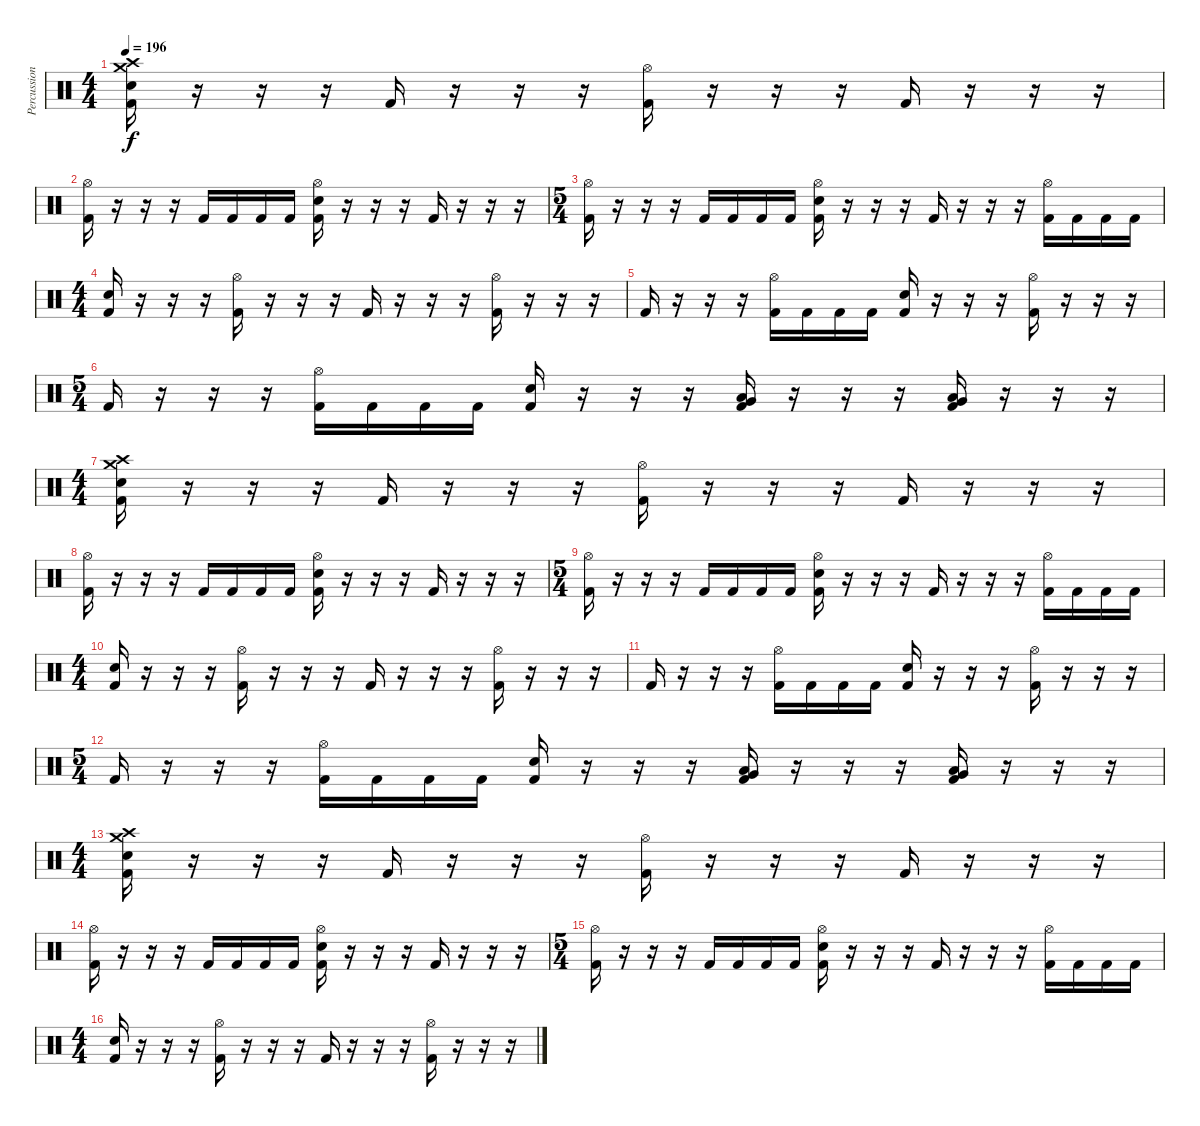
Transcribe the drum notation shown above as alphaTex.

\track ("Percussion" "Percussion") {instrument percussion}
\staff {score}
\articulation defaults
\ts (4 4)
\tempo 196
\clef neutral
\ks c
("Crash medium (hit)" "Crash high (hit)" "Electric Snare (hit)" "Kick (hit) 2").16{dy f} r.16 r.16 r.16 "Kick (hit) 2".16 r.16 r.16 r.16 ("Hi-Hat (open)" "Kick (hit) 2").16 r.16 r.16 r.16 "Kick (hit) 2".16 r.16 r.16 r.16 |
("Hi-Hat (open)" "Kick (hit) 2").16 r.16 r.16 r.16 "Kick (hit) 2".16 "Kick (hit) 2".16 "Kick (hit) 2".16 "Kick (hit) 2".16 ("Hi-Hat (open)" "Electric Snare (hit)" "Kick (hit) 2").16 r.16 r.16 r.16 "Kick (hit) 2".16 r.16 r.16 r.16 |
\ts (5 4)
("Hi-Hat (open)" "Kick (hit) 2").16 r.16 r.16 r.16 "Kick (hit) 2".16 "Kick (hit) 2".16 "Kick (hit) 2".16 "Kick (hit) 2".16 ("Hi-Hat (open)" "Electric Snare (hit)" "Kick (hit) 2").16 r.16 r.16 r.16 "Kick (hit) 2".16 r.16 r.16 r.16 ("Hi-Hat (open)" "Kick (hit) 2").16 "Kick (hit) 2".16 "Kick (hit) 2".16 "Kick (hit) 2".16 |
\ts (4 4)
("Electric Snare (hit)" "Kick (hit) 2").16 r.16 r.16 r.16 ("Hi-Hat (open)" "Kick (hit) 2").16 r.16 r.16 r.16 "Kick (hit) 2".16 r.16 r.16 r.16 ("Hi-Hat (open)" "Kick (hit) 2").16 r.16 r.16 r.16 |
"Kick (hit) 2".16 r.16 r.16 r.16 ("Hi-Hat (open)" "Kick (hit) 2").16 "Kick (hit) 2".16 "Kick (hit) 2".16 "Kick (hit) 2".16 ("Electric Snare (hit)" "Kick (hit) 2").16 r.16 r.16 r.16 ("Hi-Hat (open)" "Kick (hit) 2").16 r.16 r.16 r.16 |
\ts (5 4)
"Kick (hit) 2".16 r.16 r.16 r.16 ("Hi-Hat (open)" "Kick (hit) 2").16 "Kick (hit) 2".16 "Kick (hit) 2".16 "Kick (hit) 2".16 ("Electric Snare (hit)" "Kick (hit) 2").16 r.16 r.16 r.16 ("Very Low Tom (hit)" "Low Floor Tom (hit)" "Kick (hit) 2").16 r.16 r.16 r.16 ("Very Low Tom (hit)" "Low Floor Tom (hit)" "Kick (hit) 2").16 r.16 r.16 r.16 |
\ts (4 4)
("Crash medium (hit)" "Crash high (hit)" "Electric Snare (hit)" "Kick (hit) 2").16 r.16 r.16 r.16 "Kick (hit) 2".16 r.16 r.16 r.16 ("Hi-Hat (open)" "Kick (hit) 2").16 r.16 r.16 r.16 "Kick (hit) 2".16 r.16 r.16 r.16 |
("Hi-Hat (open)" "Kick (hit) 2").16 r.16 r.16 r.16 "Kick (hit) 2".16 "Kick (hit) 2".16 "Kick (hit) 2".16 "Kick (hit) 2".16 ("Hi-Hat (open)" "Electric Snare (hit)" "Kick (hit) 2").16 r.16 r.16 r.16 "Kick (hit) 2".16 r.16 r.16 r.16 |
\ts (5 4)
("Hi-Hat (open)" "Kick (hit) 2").16 r.16 r.16 r.16 "Kick (hit) 2".16 "Kick (hit) 2".16 "Kick (hit) 2".16 "Kick (hit) 2".16 ("Hi-Hat (open)" "Electric Snare (hit)" "Kick (hit) 2").16 r.16 r.16 r.16 "Kick (hit) 2".16 r.16 r.16 r.16 ("Hi-Hat (open)" "Kick (hit) 2").16 "Kick (hit) 2".16 "Kick (hit) 2".16 "Kick (hit) 2".16 |
\ts (4 4)
("Electric Snare (hit)" "Kick (hit) 2").16 r.16 r.16 r.16 ("Hi-Hat (open)" "Kick (hit) 2").16 r.16 r.16 r.16 "Kick (hit) 2".16 r.16 r.16 r.16 ("Hi-Hat (open)" "Kick (hit) 2").16 r.16 r.16 r.16 |
"Kick (hit) 2".16 r.16 r.16 r.16 ("Hi-Hat (open)" "Kick (hit) 2").16 "Kick (hit) 2".16 "Kick (hit) 2".16 "Kick (hit) 2".16 ("Electric Snare (hit)" "Kick (hit) 2").16 r.16 r.16 r.16 ("Hi-Hat (open)" "Kick (hit) 2").16 r.16 r.16 r.16 |
\ts (5 4)
"Kick (hit) 2".16 r.16 r.16 r.16 ("Hi-Hat (open)" "Kick (hit) 2").16 "Kick (hit) 2".16 "Kick (hit) 2".16 "Kick (hit) 2".16 ("Electric Snare (hit)" "Kick (hit) 2").16 r.16 r.16 r.16 ("Very Low Tom (hit)" "Low Floor Tom (hit)" "Kick (hit) 2").16 r.16 r.16 r.16 ("Very Low Tom (hit)" "Low Floor Tom (hit)" "Kick (hit) 2").16 r.16 r.16 r.16 |
\ts (4 4)
("Crash medium (hit)" "Crash high (hit)" "Electric Snare (hit)" "Kick (hit) 2").16 r.16 r.16 r.16 "Kick (hit) 2".16 r.16 r.16 r.16 ("Hi-Hat (open)" "Kick (hit) 2").16 r.16 r.16 r.16 "Kick (hit) 2".16 r.16 r.16 r.16 |
("Hi-Hat (open)" "Kick (hit) 2").16 r.16 r.16 r.16 "Kick (hit) 2".16 "Kick (hit) 2".16 "Kick (hit) 2".16 "Kick (hit) 2".16 ("Hi-Hat (open)" "Electric Snare (hit)" "Kick (hit) 2").16 r.16 r.16 r.16 "Kick (hit) 2".16 r.16 r.16 r.16 |
\ts (5 4)
("Hi-Hat (open)" "Kick (hit) 2").16 r.16 r.16 r.16 "Kick (hit) 2".16 "Kick (hit) 2".16 "Kick (hit) 2".16 "Kick (hit) 2".16 ("Hi-Hat (open)" "Electric Snare (hit)" "Kick (hit) 2").16 r.16 r.16 r.16 "Kick (hit) 2".16 r.16 r.16 r.16 ("Hi-Hat (open)" "Kick (hit) 2").16 "Kick (hit) 2".16 "Kick (hit) 2".16 "Kick (hit) 2".16 |
\ts (4 4)
("Electric Snare (hit)" "Kick (hit) 2").16 r.16 r.16 r.16 ("Hi-Hat (open)" "Kick (hit) 2").16 r.16 r.16 r.16 "Kick (hit) 2".16 r.16 r.16 r.16 ("Hi-Hat (open)" "Kick (hit) 2").16 r.16 r.16 r.16
